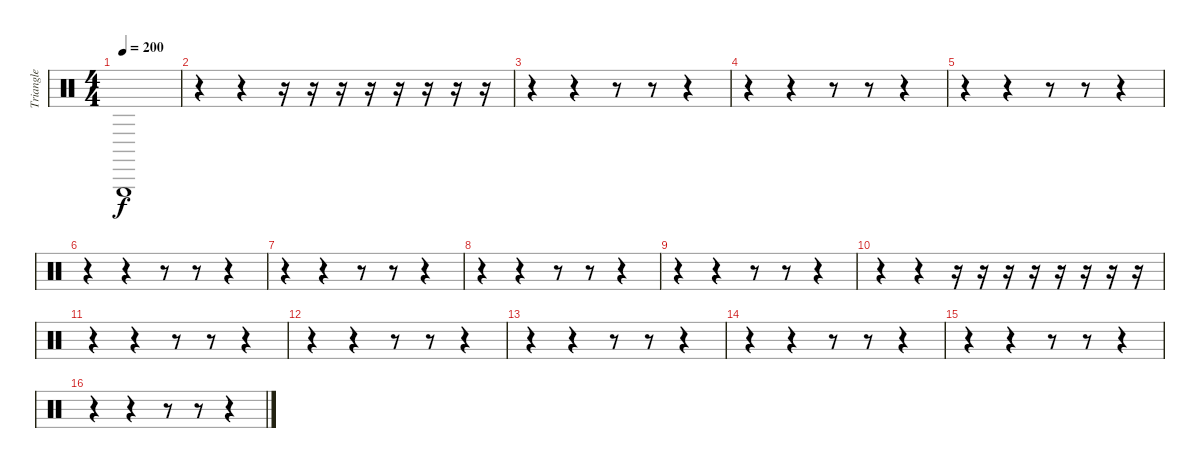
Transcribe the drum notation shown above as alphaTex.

\track ("Triangle" "Triangle") {instrument percussion}
\staff {score}
\articulation defaults
\ts (4 4)
\tempo 200
\clef neutral
\ks c "Triangle (hit)".1{dy f}
|
r.4 r.4 r.16 r.16 r.16 r.16 r.16 r.16 r.16 r.16 |
r.4 r.4 r.8 r.8 r.4 |
r.4 r.4 r.8 r.8 r.4 |
r.4 r.4 r.8 r.8 r.4 |
r.4 r.4 r.8 r.8 r.4 |
r.4 r.4 r.8 r.8 r.4 |
r.4 r.4 r.8 r.8 r.4 |
r.4 r.4 r.8 r.8 r.4 |
r.4 r.4 r.16 r.16 r.16 r.16 r.16 r.16 r.16 r.16 |
r.4 r.4 r.8 r.8 r.4 |
r.4 r.4 r.8 r.8 r.4 |
r.4 r.4 r.8 r.8 r.4 |
r.4 r.4 r.8 r.8 r.4 |
r.4 r.4 r.8 r.8 r.4 |
r.4 r.4 r.8 r.8 r.4
